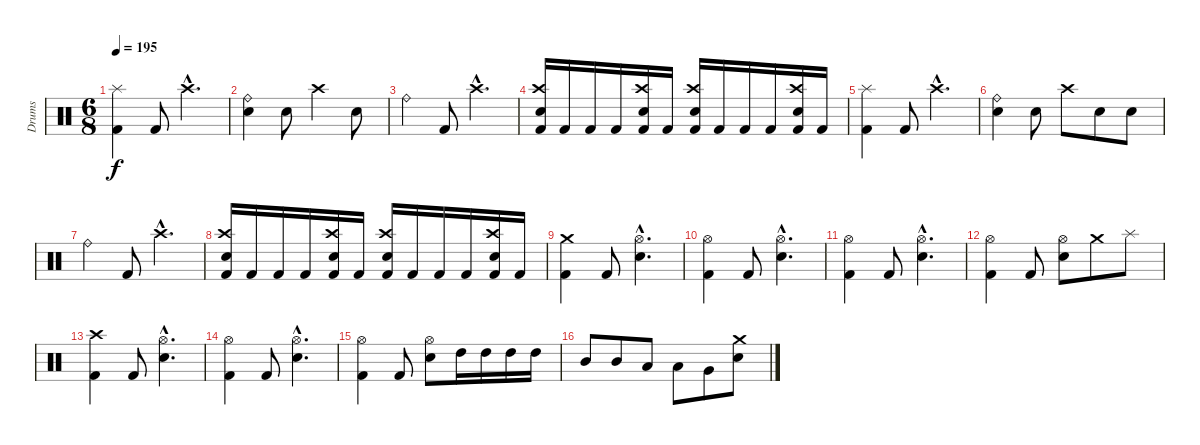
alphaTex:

\track ("Drums" "Drums") {instrument percussion}
\staff {score}
\articulation defaults
\ts (6 8)
\tempo 195
\clef neutral
\ks c
("Splash (hit)" "Kick (hit) 2").4{dy f} "Kick (hit) 2".8 "Crash high (hit)"{hac}.4{d} |
("Ride (bell)" "Electric Snare (hit)").4 "Electric Snare (hit)".8 "Crash high (hit)".4 "Electric Snare (hit)".8 |
"Ride (bell)".4 "Kick (hit) 2".8 "Crash high (hit)"{hac}.4{d} |
("Crash high (hit)" "Electric Snare (hit)" "Kick (hit) 2").16 "Kick (hit) 2".16 "Kick (hit) 2".16 "Kick (hit) 2".16 ("Crash high (hit)" "Electric Snare (hit)" "Kick (hit) 2").16 "Kick (hit) 2".16 ("Crash high (hit)" "Electric Snare (hit)" "Kick (hit) 2").16 "Kick (hit) 2".16 "Kick (hit) 2".16 "Kick (hit) 2".16 ("Crash high (hit)" "Electric Snare (hit)" "Kick (hit) 2").16 "Kick (hit) 2".16 |
("Splash (hit)" "Kick (hit) 2").4 "Kick (hit) 2".8 "Crash high (hit)"{hac}.4{d} |
("Ride (bell)" "Electric Snare (hit)").4 "Electric Snare (hit)".8 "Crash high (hit)".8 "Electric Snare (hit)".8 "Electric Snare (hit)".8 |
"Ride (bell)".4 "Kick (hit) 2".8 "Crash high (hit)"{hac}.4{d} |
("Crash high (hit)" "Electric Snare (hit)" "Kick (hit) 2").16 "Kick (hit) 2".16 "Kick (hit) 2".16 "Kick (hit) 2".16 ("Crash high (hit)" "Electric Snare (hit)" "Kick (hit) 2").16 "Kick (hit) 2".16 ("Crash high (hit)" "Electric Snare (hit)" "Kick (hit) 2").16 "Kick (hit) 2".16 "Kick (hit) 2".16 "Kick (hit) 2".16 ("Crash high (hit)" "Electric Snare (hit)" "Kick (hit) 2").16 "Kick (hit) 2".16 |
("Crash medium (hit)" "Kick (hit) 2").4 "Kick (hit) 2".8 ("Hi-Hat (open)"{hac} "Electric Snare (hit)"{hac}).4{d} |
("Hi-Hat (open)" "Kick (hit) 2").4 "Kick (hit) 2".8 ("Hi-Hat (open)"{hac} "Electric Snare (hit)"{hac}).4{d} |
("Hi-Hat (open)" "Kick (hit) 2").4 "Kick (hit) 2".8 ("Hi-Hat (open)"{hac} "Electric Snare (hit)"{hac}).4{d} |
("Hi-Hat (open)" "Kick (hit) 2").4 "Kick (hit) 2".8 ("Hi-Hat (open)" "Electric Snare (hit)").8 "Crash medium (hit)".8 "Splash (hit)".8 |
("Crash high (hit)" "Kick (hit) 2").4 "Kick (hit) 2".8 ("Hi-Hat (open)"{hac} "Electric Snare (hit)"{hac}).4{d} |
("Hi-Hat (open)" "Kick (hit) 2").4 "Kick (hit) 2".8 ("Hi-Hat (open)"{hac} "Electric Snare (hit)"{hac}).4{d} |
("Hi-Hat (open)" "Kick (hit) 2").4 "Kick (hit) 2".8 ("Hi-Hat (open)" "Electric Snare (hit)").8 "High Tom (hit)".16 "High Tom (hit)".16 "High Tom (hit)".16 "High Tom (hit)".16 |
"Mid Tom (hit)".8 "Mid Tom (hit)".8 "Low Tom (hit)".8 "Low Tom (hit)".8 "Very Low Tom (hit)".8 ("Crash medium (hit)" "Electric Snare (hit)").8
